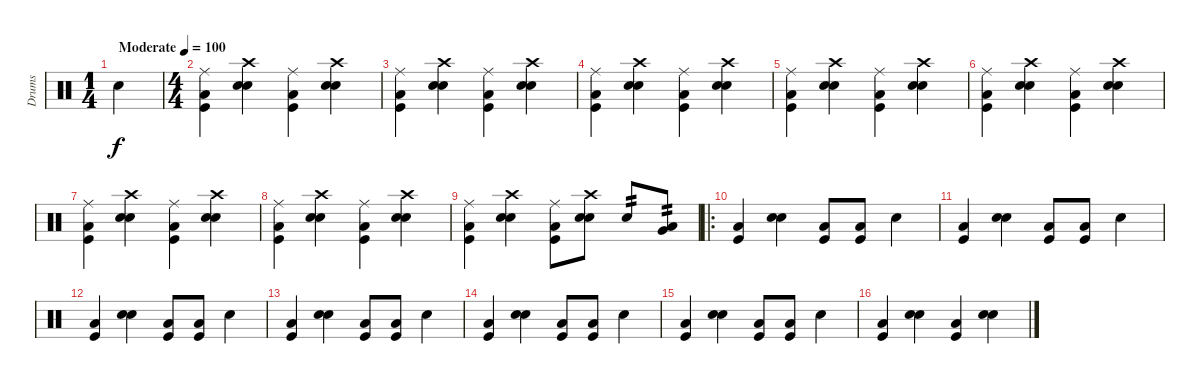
\track ("Drums" "Drums") {instrument percussion}
\staff {score}
\articulation defaults
\ts (1 4)
\tempo (100 "Moderate")
\clef neutral
\ks c "Electric Snare (hit)".4{dy f}
|
\ts (4 4)
("Ride (middle)" "Kick (hit)" "Low Floor Tom (hit)").4 ("Crash high (hit)" "Snare (hit) 2" "Electric Snare (hit)").4 ("Ride (middle)" "Kick (hit)" "Low Floor Tom (hit)").4 ("Crash high (hit)" "Snare (hit) 2" "Electric Snare (hit)").4 |
("Ride (middle)" "Kick (hit)" "Low Floor Tom (hit)").4 ("Crash high (hit)" "Snare (hit) 2" "Electric Snare (hit)").4 ("Ride (middle)" "Kick (hit)" "Low Floor Tom (hit)").4 ("Crash high (hit)" "Snare (hit) 2" "Electric Snare (hit)").4 |
("Ride (middle)" "Kick (hit)" "Low Floor Tom (hit)").4 ("Crash high (hit)" "Snare (hit) 2" "Electric Snare (hit)").4 ("Ride (middle)" "Kick (hit)" "Low Floor Tom (hit)").4 ("Crash high (hit)" "Snare (hit) 2" "Electric Snare (hit)").4 |
("Ride (middle)" "Kick (hit)" "Low Floor Tom (hit)").4 ("Crash high (hit)" "Snare (hit) 2" "Electric Snare (hit)").4 ("Ride (middle)" "Kick (hit)" "Low Floor Tom (hit)").4 ("Crash high (hit)" "Snare (hit) 2" "Electric Snare (hit)").4 |
("Ride (middle)" "Kick (hit)" "Low Floor Tom (hit)").4 ("Crash high (hit)" "Snare (hit) 2" "Electric Snare (hit)").4 ("Ride (middle)" "Kick (hit)" "Low Floor Tom (hit)").4 ("Crash high (hit)" "Snare (hit) 2" "Electric Snare (hit)").4 |
("Ride (middle)" "Kick (hit)" "Low Floor Tom (hit)").4 ("Crash high (hit)" "Snare (hit) 2" "Electric Snare (hit)").4 ("Ride (middle)" "Kick (hit)" "Low Floor Tom (hit)").4 ("Crash high (hit)" "Snare (hit) 2" "Electric Snare (hit)").4 |
("Ride (middle)" "Kick (hit)" "Low Floor Tom (hit)").4 ("Crash high (hit)" "Snare (hit) 2" "Electric Snare (hit)").4 ("Ride (middle)" "Kick (hit)" "Low Floor Tom (hit)").4 ("Crash high (hit)" "Snare (hit) 2" "Electric Snare (hit)").4 |
("Ride (middle)" "Kick (hit)" "Low Floor Tom (hit)").4 ("Crash high (hit)" "Snare (hit) 2" "Electric Snare (hit)").4 ("Ride (middle)" "Kick (hit)" "Low Floor Tom (hit)").8 ("Crash high (hit)" "Snare (hit) 2" "Electric Snare (hit)").8 "Snare (hit) 2".8{tp 2} ("Low Floor Tom (hit)" "Very Low Tom (hit)").8{tp 2} |
\ro
("Kick (hit)" "Low Floor Tom (hit)").4 ("Snare (hit) 2" "Electric Snare (hit)").4 ("Kick (hit)" "Low Floor Tom (hit)").8 ("Kick (hit)" "Low Floor Tom (hit)").8 "Snare (hit) 2".4 |
("Kick (hit)" "Low Floor Tom (hit)").4 ("Snare (hit) 2" "Electric Snare (hit)").4 ("Kick (hit)" "Low Floor Tom (hit)").8 ("Kick (hit)" "Low Floor Tom (hit)").8 "Snare (hit) 2".4 |
("Kick (hit)" "Low Floor Tom (hit)").4 ("Snare (hit) 2" "Electric Snare (hit)").4 ("Kick (hit)" "Low Floor Tom (hit)").8 ("Kick (hit)" "Low Floor Tom (hit)").8 "Snare (hit) 2".4 |
("Kick (hit)" "Low Floor Tom (hit)").4 ("Snare (hit) 2" "Electric Snare (hit)").4 ("Kick (hit)" "Low Floor Tom (hit)").8 ("Kick (hit)" "Low Floor Tom (hit)").8 "Snare (hit) 2".4 |
("Kick (hit)" "Low Floor Tom (hit)").4 ("Snare (hit) 2" "Electric Snare (hit)").4 ("Kick (hit)" "Low Floor Tom (hit)").8 ("Kick (hit)" "Low Floor Tom (hit)").8 "Snare (hit) 2".4 |
("Kick (hit)" "Low Floor Tom (hit)").4 ("Snare (hit) 2" "Electric Snare (hit)").4 ("Kick (hit)" "Low Floor Tom (hit)").8 ("Kick (hit)" "Low Floor Tom (hit)").8 "Snare (hit) 2".4 |
("Kick (hit)" "Low Floor Tom (hit)").4 ("Snare (hit) 2" "Electric Snare (hit)").4 ("Kick (hit)" "Low Floor Tom (hit)").4 ("Snare (hit) 2" "Electric Snare (hit)").4
